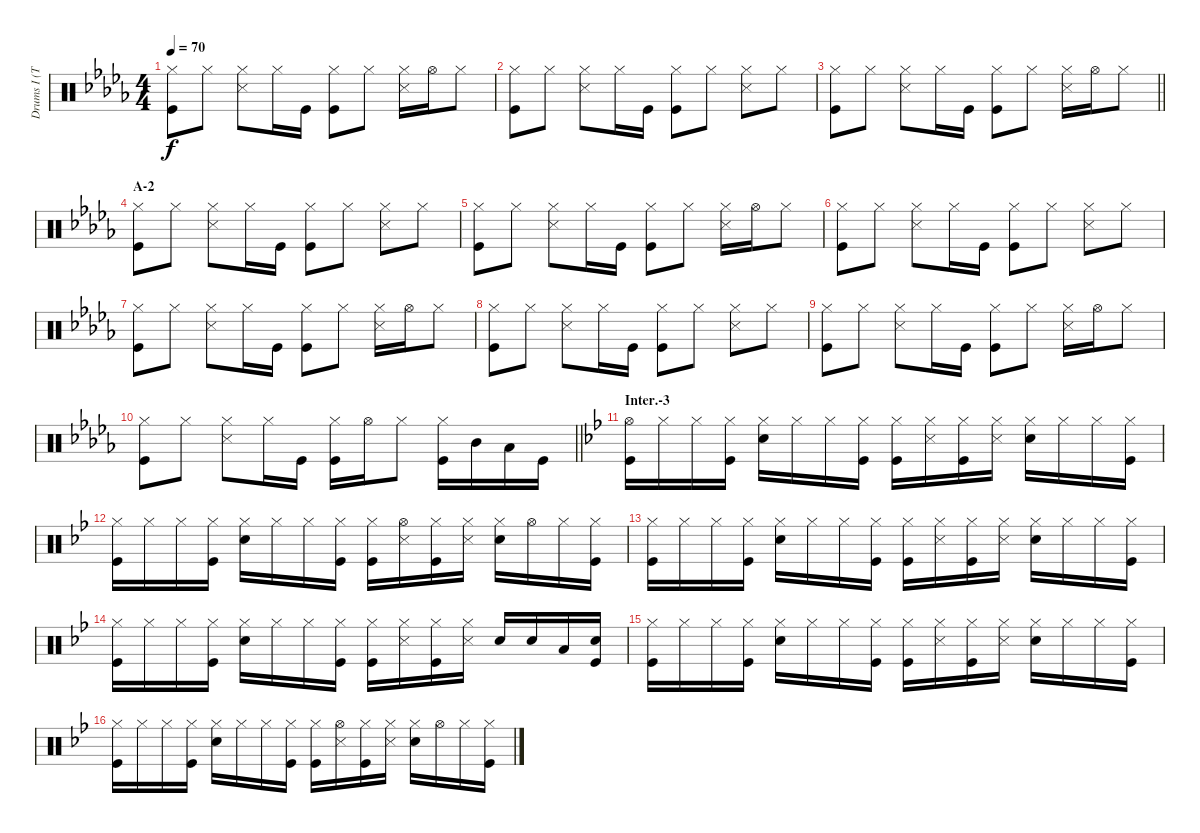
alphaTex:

\track ("Drums I (Tainaka Ritsu)" "Drums I (T") {instrument percussion}
\staff {score}
\articulation defaults
\ts (4 4)
\tempo 70
\clef neutral
\ks db
("Hi-Hat (closed)" "Kick (hit)").8{dy f} "Hi-Hat (closed)".8 ("Hi-Hat (closed)" "Snare (side stick) 3").8 "Hi-Hat (closed)".16 "Kick (hit)".16 ("Hi-Hat (closed)" "Kick (hit)").8 "Hi-Hat (closed)".8 ("Hi-Hat (closed)" "Snare (side stick) 3").16 "Hi-Hat (open)".16 "Hi-Hat (closed)".8 |
("Hi-Hat (closed)" "Kick (hit)").8 "Hi-Hat (closed)".8 ("Hi-Hat (closed)" "Snare (side stick) 3").8 "Hi-Hat (closed)".16 "Kick (hit)".16 ("Hi-Hat (closed)" "Kick (hit)").8 "Hi-Hat (closed)".8 ("Hi-Hat (closed)" "Snare (side stick) 3").8 "Hi-Hat (closed)".8 |
\barLineRight lightlight
("Hi-Hat (closed)" "Kick (hit)").8 "Hi-Hat (closed)".8 ("Hi-Hat (closed)" "Snare (side stick) 3").8 "Hi-Hat (closed)".16 "Kick (hit)".16 ("Hi-Hat (closed)" "Kick (hit)").8 "Hi-Hat (closed)".8 ("Hi-Hat (closed)" "Snare (side stick) 3").16 "Hi-Hat (open)".16 "Hi-Hat (closed)".8 |
\section ("" "A-2")
("Hi-Hat (closed)" "Kick (hit)").8 "Hi-Hat (closed)".8 ("Hi-Hat (closed)" "Snare (side stick) 3").8 "Hi-Hat (closed)".16 "Kick (hit)".16 ("Hi-Hat (closed)" "Kick (hit)").8 "Hi-Hat (closed)".8 ("Hi-Hat (closed)" "Snare (side stick) 3").8 "Hi-Hat (closed)".8 |
("Hi-Hat (closed)" "Kick (hit)").8 "Hi-Hat (closed)".8 ("Hi-Hat (closed)" "Snare (side stick) 3").8 "Hi-Hat (closed)".16 "Kick (hit)".16 ("Hi-Hat (closed)" "Kick (hit)").8 "Hi-Hat (closed)".8 ("Hi-Hat (closed)" "Snare (side stick) 3").16 "Hi-Hat (open)".16 "Hi-Hat (closed)".8 |
("Hi-Hat (closed)" "Kick (hit)").8 "Hi-Hat (closed)".8 ("Hi-Hat (closed)" "Snare (side stick) 3").8 "Hi-Hat (closed)".16 "Kick (hit)".16 ("Hi-Hat (closed)" "Kick (hit)").8 "Hi-Hat (closed)".8 ("Hi-Hat (closed)" "Snare (side stick) 3").8 "Hi-Hat (closed)".8 |
("Hi-Hat (closed)" "Kick (hit)").8 "Hi-Hat (closed)".8 ("Hi-Hat (closed)" "Snare (side stick) 3").8 "Hi-Hat (closed)".16 "Kick (hit)".16 ("Hi-Hat (closed)" "Kick (hit)").8 "Hi-Hat (closed)".8 ("Hi-Hat (closed)" "Snare (side stick) 3").16 "Hi-Hat (open)".16 "Hi-Hat (closed)".8 |
("Hi-Hat (closed)" "Kick (hit)").8 "Hi-Hat (closed)".8 ("Hi-Hat (closed)" "Snare (side stick) 3").8 "Hi-Hat (closed)".16 "Kick (hit)".16 ("Hi-Hat (closed)" "Kick (hit)").8 "Hi-Hat (closed)".8 ("Hi-Hat (closed)" "Snare (side stick) 3").8 "Hi-Hat (closed)".8 |
("Hi-Hat (closed)" "Kick (hit)").8 "Hi-Hat (closed)".8 ("Hi-Hat (closed)" "Snare (side stick) 3").8 "Hi-Hat (closed)".16 "Kick (hit)".16 ("Hi-Hat (closed)" "Kick (hit)").8 "Hi-Hat (closed)".8 ("Hi-Hat (closed)" "Snare (side stick) 3").16 "Hi-Hat (open)".16 "Hi-Hat (closed)".8 |
\barLineRight lightlight
("Hi-Hat (closed)" "Kick (hit)").8 "Hi-Hat (closed)".8 ("Hi-Hat (closed)" "Snare (side stick) 3").8 "Hi-Hat (closed)".16 "Kick (hit)".16 ("Hi-Hat (closed)" "Kick (hit)").16 "Hi-Hat (open)".16 "Hi-Hat (closed)".8 ("Hi-Hat (closed)" "Kick (hit)").16 "Mid Tom (hit)".16 "Low Tom (hit)".16 "Kick (hit)".16 |
\section ("" "Inter.-3")
\ks bb
("Hi-Hat (open)" "Kick (hit)").16 "Hi-Hat (closed)".16 "Hi-Hat (closed)".16 ("Hi-Hat (closed)" "Kick (hit)").16 ("Hi-Hat (closed)" "Snare (hit) 2").16 "Hi-Hat (closed)".16 "Hi-Hat (closed)".16 ("Hi-Hat (closed)" "Kick (hit)").16 ("Hi-Hat (closed)" "Kick (hit)").16 ("Hi-Hat (closed)" "Snare (side stick) 3").16 ("Hi-Hat (closed)" "Kick (hit)").16 ("Hi-Hat (closed)" "Snare (side stick) 3").16 ("Hi-Hat (closed)" "Snare (hit) 2").16 "Hi-Hat (closed)".16 "Hi-Hat (closed)".16 ("Hi-Hat (closed)" "Kick (hit)").16 |
("Hi-Hat (closed)" "Kick (hit)").16 "Hi-Hat (closed)".16 "Hi-Hat (closed)".16 ("Hi-Hat (closed)" "Kick (hit)").16 ("Hi-Hat (closed)" "Snare (hit) 2").16 "Hi-Hat (closed)".16 "Hi-Hat (closed)".16 ("Hi-Hat (closed)" "Kick (hit)").16 ("Hi-Hat (closed)" "Kick (hit)").16 ("Hi-Hat (open)" "Snare (side stick) 3").16 ("Hi-Hat (closed)" "Kick (hit)").16 ("Hi-Hat (closed)" "Snare (side stick) 3").16 ("Hi-Hat (closed)" "Snare (hit) 2").16 "Hi-Hat (open)".16 "Hi-Hat (closed)".16 ("Hi-Hat (closed)" "Kick (hit)").16 |
("Hi-Hat (closed)" "Kick (hit)").16 "Hi-Hat (closed)".16 "Hi-Hat (closed)".16 ("Hi-Hat (closed)" "Kick (hit)").16 ("Hi-Hat (closed)" "Snare (hit) 2").16 "Hi-Hat (closed)".16 "Hi-Hat (closed)".16 ("Hi-Hat (closed)" "Kick (hit)").16 ("Hi-Hat (closed)" "Kick (hit)").16 ("Hi-Hat (closed)" "Snare (side stick) 3").16 ("Hi-Hat (closed)" "Kick (hit)").16 ("Hi-Hat (closed)" "Snare (side stick) 3").16 ("Hi-Hat (closed)" "Snare (hit) 2").16 "Hi-Hat (closed)".16 "Hi-Hat (closed)".16 ("Hi-Hat (closed)" "Kick (hit)").16 |
("Hi-Hat (closed)" "Kick (hit)").16 "Hi-Hat (closed)".16 "Hi-Hat (closed)".16 ("Hi-Hat (closed)" "Kick (hit)").16 ("Hi-Hat (closed)" "Snare (hit) 2").16 "Hi-Hat (closed)".16 "Hi-Hat (closed)".16 ("Hi-Hat (closed)" "Kick (hit)").16 ("Hi-Hat (closed)" "Kick (hit)").16 ("Hi-Hat (closed)" "Snare (side stick) 3").16 ("Hi-Hat (closed)" "Kick (hit)").16 ("Hi-Hat (closed)" "Snare (side stick) 3").16 "Snare (hit) 2".16 "Snare (hit) 2".16 "Low Tom (hit)".16 ("Snare (hit) 2" "Kick (hit)").16 |
("Hi-Hat (closed)" "Kick (hit)").16 "Hi-Hat (closed)".16 "Hi-Hat (closed)".16 ("Hi-Hat (closed)" "Kick (hit)").16 ("Hi-Hat (closed)" "Snare (hit) 2").16 "Hi-Hat (closed)".16 "Hi-Hat (closed)".16 ("Hi-Hat (closed)" "Kick (hit)").16 ("Hi-Hat (closed)" "Kick (hit)").16 ("Hi-Hat (closed)" "Snare (side stick) 3").16 ("Hi-Hat (closed)" "Kick (hit)").16 ("Hi-Hat (closed)" "Snare (side stick) 3").16 ("Hi-Hat (closed)" "Snare (hit) 2").16 "Hi-Hat (closed)".16 "Hi-Hat (closed)".16 ("Hi-Hat (closed)" "Kick (hit)").16 |
("Hi-Hat (closed)" "Kick (hit)").16 "Hi-Hat (closed)".16 "Hi-Hat (closed)".16 ("Hi-Hat (closed)" "Kick (hit)").16 ("Hi-Hat (closed)" "Snare (hit) 2").16 "Hi-Hat (closed)".16 "Hi-Hat (closed)".16 ("Hi-Hat (closed)" "Kick (hit)").16 ("Hi-Hat (closed)" "Kick (hit)").16 ("Hi-Hat (open)" "Snare (side stick) 3").16 ("Hi-Hat (closed)" "Kick (hit)").16 ("Hi-Hat (closed)" "Snare (side stick) 3").16 ("Hi-Hat (closed)" "Snare (hit) 2").16 "Hi-Hat (open)".16 "Hi-Hat (closed)".16 ("Hi-Hat (closed)" "Kick (hit)").16
